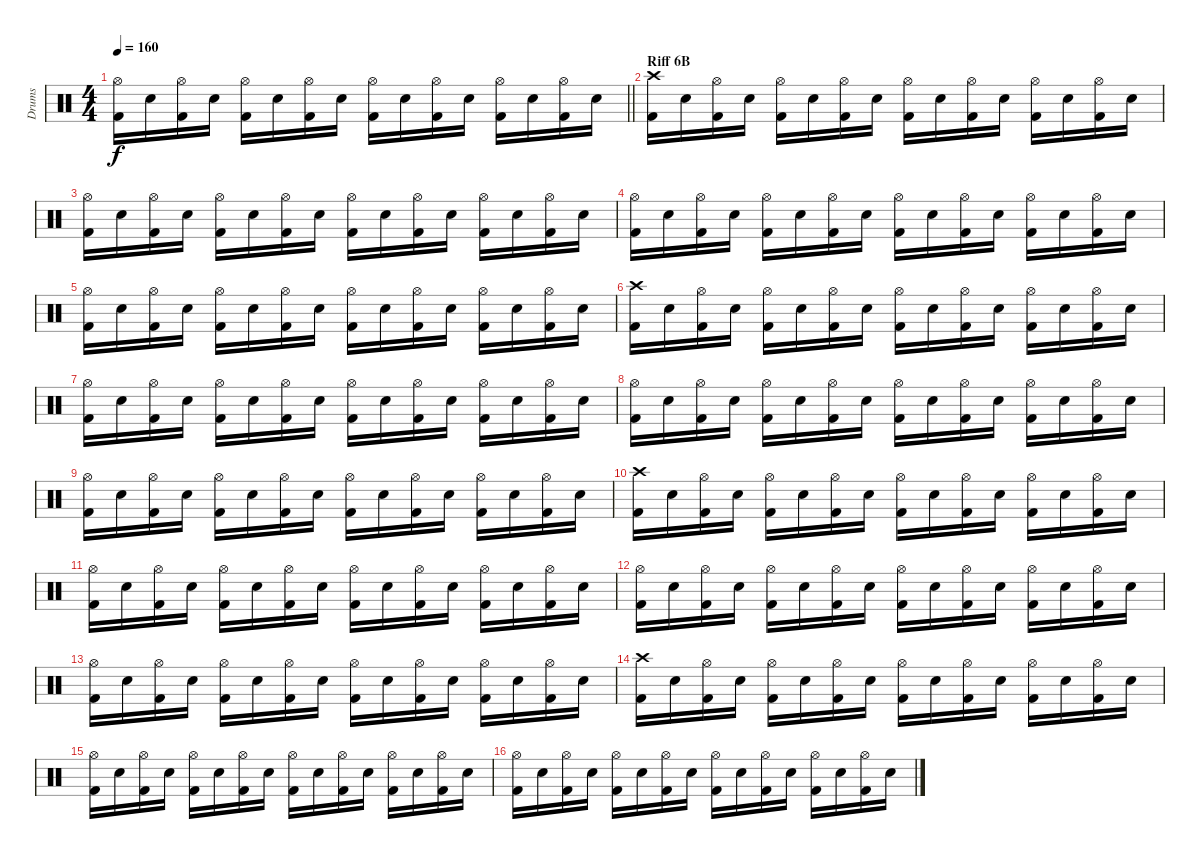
\track ("Drums" "Drums") {instrument percussion}
\staff {score}
\articulation defaults
\ts (4 4)
\tempo 160
\clef neutral
\barLineRight lightlight
\ks c
("Hi-Hat (open)" "Kick (hit) 2").16{dy f} "Electric Snare (hit)".16 ("Hi-Hat (open)" "Kick (hit) 2").16 "Electric Snare (hit)".16 ("Hi-Hat (open)" "Kick (hit) 2").16 "Electric Snare (hit)".16 ("Hi-Hat (open)" "Kick (hit) 2").16 "Electric Snare (hit)".16 ("Hi-Hat (open)" "Kick (hit) 2").16 "Electric Snare (hit)".16 ("Hi-Hat (open)" "Kick (hit) 2").16 "Electric Snare (hit)".16 ("Hi-Hat (open)" "Kick (hit) 2").16 "Electric Snare (hit)".16 ("Hi-Hat (open)" "Kick (hit) 2").16 "Electric Snare (hit)".16 |
\section ("" "Riff 6B")
("Crash high (hit)" "Kick (hit) 2").16 "Electric Snare (hit)".16 ("Hi-Hat (open)" "Kick (hit) 2").16 "Electric Snare (hit)".16 ("Hi-Hat (open)" "Kick (hit) 2").16 "Electric Snare (hit)".16 ("Hi-Hat (open)" "Kick (hit) 2").16 "Electric Snare (hit)".16 ("Hi-Hat (open)" "Kick (hit) 2").16 "Electric Snare (hit)".16 ("Hi-Hat (open)" "Kick (hit) 2").16 "Electric Snare (hit)".16 ("Hi-Hat (open)" "Kick (hit) 2").16 "Electric Snare (hit)".16 ("Hi-Hat (open)" "Kick (hit) 2").16 "Electric Snare (hit)".16 |
("Hi-Hat (open)" "Kick (hit) 2").16 "Electric Snare (hit)".16 ("Hi-Hat (open)" "Kick (hit) 2").16 "Electric Snare (hit)".16 ("Hi-Hat (open)" "Kick (hit) 2").16 "Electric Snare (hit)".16 ("Hi-Hat (open)" "Kick (hit) 2").16 "Electric Snare (hit)".16 ("Hi-Hat (open)" "Kick (hit) 2").16 "Electric Snare (hit)".16 ("Hi-Hat (open)" "Kick (hit) 2").16 "Electric Snare (hit)".16 ("Hi-Hat (open)" "Kick (hit) 2").16 "Electric Snare (hit)".16 ("Hi-Hat (open)" "Kick (hit) 2").16 "Electric Snare (hit)".16 |
("Hi-Hat (open)" "Kick (hit) 2").16 "Electric Snare (hit)".16 ("Hi-Hat (open)" "Kick (hit) 2").16 "Electric Snare (hit)".16 ("Hi-Hat (open)" "Kick (hit) 2").16 "Electric Snare (hit)".16 ("Hi-Hat (open)" "Kick (hit) 2").16 "Electric Snare (hit)".16 ("Hi-Hat (open)" "Kick (hit) 2").16 "Electric Snare (hit)".16 ("Hi-Hat (open)" "Kick (hit) 2").16 "Electric Snare (hit)".16 ("Hi-Hat (open)" "Kick (hit) 2").16 "Electric Snare (hit)".16 ("Hi-Hat (open)" "Kick (hit) 2").16 "Electric Snare (hit)".16 |
("Hi-Hat (open)" "Kick (hit) 2").16 "Electric Snare (hit)".16 ("Hi-Hat (open)" "Kick (hit) 2").16 "Electric Snare (hit)".16 ("Hi-Hat (open)" "Kick (hit) 2").16 "Electric Snare (hit)".16 ("Hi-Hat (open)" "Kick (hit) 2").16 "Electric Snare (hit)".16 ("Hi-Hat (open)" "Kick (hit) 2").16 "Electric Snare (hit)".16 ("Hi-Hat (open)" "Kick (hit) 2").16 "Electric Snare (hit)".16 ("Hi-Hat (open)" "Kick (hit) 2").16 "Electric Snare (hit)".16 ("Hi-Hat (open)" "Kick (hit) 2").16 "Electric Snare (hit)".16 |
("Crash high (hit)" "Kick (hit) 2").16 "Electric Snare (hit)".16 ("Hi-Hat (open)" "Kick (hit) 2").16 "Electric Snare (hit)".16 ("Hi-Hat (open)" "Kick (hit) 2").16 "Electric Snare (hit)".16 ("Hi-Hat (open)" "Kick (hit) 2").16 "Electric Snare (hit)".16 ("Hi-Hat (open)" "Kick (hit) 2").16 "Electric Snare (hit)".16 ("Hi-Hat (open)" "Kick (hit) 2").16 "Electric Snare (hit)".16 ("Hi-Hat (open)" "Kick (hit) 2").16 "Electric Snare (hit)".16 ("Hi-Hat (open)" "Kick (hit) 2").16 "Electric Snare (hit)".16 |
("Hi-Hat (open)" "Kick (hit) 2").16 "Electric Snare (hit)".16 ("Hi-Hat (open)" "Kick (hit) 2").16 "Electric Snare (hit)".16 ("Hi-Hat (open)" "Kick (hit) 2").16 "Electric Snare (hit)".16 ("Hi-Hat (open)" "Kick (hit) 2").16 "Electric Snare (hit)".16 ("Hi-Hat (open)" "Kick (hit) 2").16 "Electric Snare (hit)".16 ("Hi-Hat (open)" "Kick (hit) 2").16 "Electric Snare (hit)".16 ("Hi-Hat (open)" "Kick (hit) 2").16 "Electric Snare (hit)".16 ("Hi-Hat (open)" "Kick (hit) 2").16 "Electric Snare (hit)".16 |
("Hi-Hat (open)" "Kick (hit) 2").16 "Electric Snare (hit)".16 ("Hi-Hat (open)" "Kick (hit) 2").16 "Electric Snare (hit)".16 ("Hi-Hat (open)" "Kick (hit) 2").16 "Electric Snare (hit)".16 ("Hi-Hat (open)" "Kick (hit) 2").16 "Electric Snare (hit)".16 ("Hi-Hat (open)" "Kick (hit) 2").16 "Electric Snare (hit)".16 ("Hi-Hat (open)" "Kick (hit) 2").16 "Electric Snare (hit)".16 ("Hi-Hat (open)" "Kick (hit) 2").16 "Electric Snare (hit)".16 ("Hi-Hat (open)" "Kick (hit) 2").16 "Electric Snare (hit)".16 |
("Hi-Hat (open)" "Kick (hit) 2").16 "Electric Snare (hit)".16 ("Hi-Hat (open)" "Kick (hit) 2").16 "Electric Snare (hit)".16 ("Hi-Hat (open)" "Kick (hit) 2").16 "Electric Snare (hit)".16 ("Hi-Hat (open)" "Kick (hit) 2").16 "Electric Snare (hit)".16 ("Hi-Hat (open)" "Kick (hit) 2").16 "Electric Snare (hit)".16 ("Hi-Hat (open)" "Kick (hit) 2").16 "Electric Snare (hit)".16 ("Hi-Hat (open)" "Kick (hit) 2").16 "Electric Snare (hit)".16 ("Hi-Hat (open)" "Kick (hit) 2").16 "Electric Snare (hit)".16 |
("Crash high (hit)" "Kick (hit) 2").16 "Electric Snare (hit)".16 ("Hi-Hat (open)" "Kick (hit) 2").16 "Electric Snare (hit)".16 ("Hi-Hat (open)" "Kick (hit) 2").16 "Electric Snare (hit)".16 ("Hi-Hat (open)" "Kick (hit) 2").16 "Electric Snare (hit)".16 ("Hi-Hat (open)" "Kick (hit) 2").16 "Electric Snare (hit)".16 ("Hi-Hat (open)" "Kick (hit) 2").16 "Electric Snare (hit)".16 ("Hi-Hat (open)" "Kick (hit) 2").16 "Electric Snare (hit)".16 ("Hi-Hat (open)" "Kick (hit) 2").16 "Electric Snare (hit)".16 |
("Hi-Hat (open)" "Kick (hit) 2").16 "Electric Snare (hit)".16 ("Hi-Hat (open)" "Kick (hit) 2").16 "Electric Snare (hit)".16 ("Hi-Hat (open)" "Kick (hit) 2").16 "Electric Snare (hit)".16 ("Hi-Hat (open)" "Kick (hit) 2").16 "Electric Snare (hit)".16 ("Hi-Hat (open)" "Kick (hit) 2").16 "Electric Snare (hit)".16 ("Hi-Hat (open)" "Kick (hit) 2").16 "Electric Snare (hit)".16 ("Hi-Hat (open)" "Kick (hit) 2").16 "Electric Snare (hit)".16 ("Hi-Hat (open)" "Kick (hit) 2").16 "Electric Snare (hit)".16 |
("Hi-Hat (open)" "Kick (hit) 2").16 "Electric Snare (hit)".16 ("Hi-Hat (open)" "Kick (hit) 2").16 "Electric Snare (hit)".16 ("Hi-Hat (open)" "Kick (hit) 2").16 "Electric Snare (hit)".16 ("Hi-Hat (open)" "Kick (hit) 2").16 "Electric Snare (hit)".16 ("Hi-Hat (open)" "Kick (hit) 2").16 "Electric Snare (hit)".16 ("Hi-Hat (open)" "Kick (hit) 2").16 "Electric Snare (hit)".16 ("Hi-Hat (open)" "Kick (hit) 2").16 "Electric Snare (hit)".16 ("Hi-Hat (open)" "Kick (hit) 2").16 "Electric Snare (hit)".16 |
("Hi-Hat (open)" "Kick (hit) 2").16 "Electric Snare (hit)".16 ("Hi-Hat (open)" "Kick (hit) 2").16 "Electric Snare (hit)".16 ("Hi-Hat (open)" "Kick (hit) 2").16 "Electric Snare (hit)".16 ("Hi-Hat (open)" "Kick (hit) 2").16 "Electric Snare (hit)".16 ("Hi-Hat (open)" "Kick (hit) 2").16 "Electric Snare (hit)".16 ("Hi-Hat (open)" "Kick (hit) 2").16 "Electric Snare (hit)".16 ("Hi-Hat (open)" "Kick (hit) 2").16 "Electric Snare (hit)".16 ("Hi-Hat (open)" "Kick (hit) 2").16 "Electric Snare (hit)".16 |
("Crash high (hit)" "Kick (hit) 2").16 "Electric Snare (hit)".16 ("Hi-Hat (open)" "Kick (hit) 2").16 "Electric Snare (hit)".16 ("Hi-Hat (open)" "Kick (hit) 2").16 "Electric Snare (hit)".16 ("Hi-Hat (open)" "Kick (hit) 2").16 "Electric Snare (hit)".16 ("Hi-Hat (open)" "Kick (hit) 2").16 "Electric Snare (hit)".16 ("Hi-Hat (open)" "Kick (hit) 2").16 "Electric Snare (hit)".16 ("Hi-Hat (open)" "Kick (hit) 2").16 "Electric Snare (hit)".16 ("Hi-Hat (open)" "Kick (hit) 2").16 "Electric Snare (hit)".16 |
("Hi-Hat (open)" "Kick (hit) 2").16 "Electric Snare (hit)".16 ("Hi-Hat (open)" "Kick (hit) 2").16 "Electric Snare (hit)".16 ("Hi-Hat (open)" "Kick (hit) 2").16 "Electric Snare (hit)".16 ("Hi-Hat (open)" "Kick (hit) 2").16 "Electric Snare (hit)".16 ("Hi-Hat (open)" "Kick (hit) 2").16 "Electric Snare (hit)".16 ("Hi-Hat (open)" "Kick (hit) 2").16 "Electric Snare (hit)".16 ("Hi-Hat (open)" "Kick (hit) 2").16 "Electric Snare (hit)".16 ("Hi-Hat (open)" "Kick (hit) 2").16 "Electric Snare (hit)".16 |
("Hi-Hat (open)" "Kick (hit) 2").16 "Electric Snare (hit)".16 ("Hi-Hat (open)" "Kick (hit) 2").16 "Electric Snare (hit)".16 ("Hi-Hat (open)" "Kick (hit) 2").16 "Electric Snare (hit)".16 ("Hi-Hat (open)" "Kick (hit) 2").16 "Electric Snare (hit)".16 ("Hi-Hat (open)" "Kick (hit) 2").16 "Electric Snare (hit)".16 ("Hi-Hat (open)" "Kick (hit) 2").16 "Electric Snare (hit)".16 ("Hi-Hat (open)" "Kick (hit) 2").16 "Electric Snare (hit)".16 ("Hi-Hat (open)" "Kick (hit) 2").16 "Electric Snare (hit)".16
